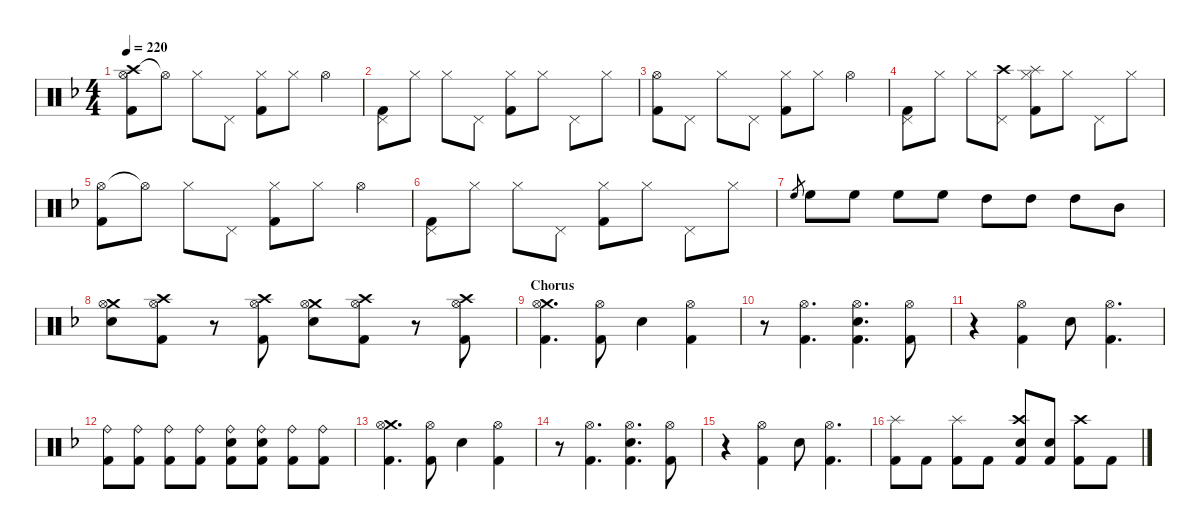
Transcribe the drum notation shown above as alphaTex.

\hideDynamics
\bracketExtendMode nobrackets
\singleTrackTrackNamePolicy hidden
\multiTrackTrackNamePolicy hidden
\firstSystemTrackNameMode fullname
\firstSystemTrackNameOrientation horizontal
\otherSystemsTrackNameOrientation horizontal
\track ("Drumkit" "Drums") {instrument percussion}
\staff {score}
\articulation defaults
\ts (4 4)
\tempo 220
\clef neutral
\ks dminor
("Crash high (hit)"{acc forcenatural} "Hi-Hat (open)"{acc forcenatural} "Kick (hit) 2"{acc forcenatural}).8{dy mp beam Down} "Hi-Hat (open)"{t acc forcenatural}.8{dy f beam Down} "Hi-Hat (closed)"{acc forcenatural}.8{dy mp beam Down} "Pedal Hi-Hat (hit)"{acc forcenatural}.8{beam Down} ("Hi-Hat (closed)"{acc forcenatural} "Kick (hit) 2"{acc forcenatural}).8{beam Down} "Hi-Hat (closed)"{acc forcenatural}.8{beam Down} "Hi-Hat (open)"{acc forcenatural}.4{dy mf beam Down} |
("Pedal Hi-Hat (hit)"{acc forcenatural} "Kick (hit) 2"{acc forcenatural}).8{beam Down} "Hi-Hat (closed)"{acc forcenatural}.8{dy mp beam Down} "Hi-Hat (closed)"{acc forcenatural}.8{beam Down} "Pedal Hi-Hat (hit)"{acc forcenatural}.8{dy mf beam Down} ("Hi-Hat (closed)"{acc forcenatural} "Kick (hit) 2"{acc forcenatural}).8{dy mp beam Down} "Hi-Hat (closed)"{acc forcenatural}.8{beam Down} "Pedal Hi-Hat (hit)"{acc forcenatural}.8{dy mf beam Down} "Hi-Hat (closed)"{acc forcenatural}.8{dy mp beam Down} |
("Hi-Hat (open)"{acc forcenatural} "Kick (hit) 2"{acc forcenatural}).8{dy mf beam Down} "Pedal Hi-Hat (hit)"{acc forcenatural}.8{beam Down} "Hi-Hat (closed)"{acc forcenatural}.8{dy mp beam Down} "Pedal Hi-Hat (hit)"{acc forcenatural}.8{beam Down} ("Hi-Hat (closed)"{acc forcenatural} "Kick (hit) 2"{acc forcenatural}).8{beam Down} "Hi-Hat (closed)"{acc forcenatural}.8{beam Down} "Hi-Hat (open)"{acc forcenatural}.4{dy mf beam Down} |
("Pedal Hi-Hat (hit)"{acc forcenatural} "Kick (hit) 2"{acc forcenatural}).8{beam Down} "Hi-Hat (closed)"{acc forcenatural}.8{dy mp beam Down} "Hi-Hat (closed)"{acc forcenatural}.8{beam Down} ("Crash high (hit)"{acc forcenatural} "Pedal Hi-Hat (hit)"{acc forcenatural}).8{beam Down} ("Splash (hit)"{acc forcenatural} "Hi-Hat (closed)"{acc forcenatural} "Kick (hit) 2"{acc forcenatural}).8{beam Down} "Hi-Hat (closed)"{acc forcenatural}.8{beam Down} "Pedal Hi-Hat (hit)"{acc forcenatural}.8{dy mf beam Down} "Hi-Hat (closed)"{acc forcenatural}.8{dy mp beam Down} |
("Hi-Hat (open)"{acc forcenatural} "Kick (hit) 2"{acc forcenatural}).8{dy mf beam Down} "Hi-Hat (open)"{t acc forcenatural}.8{dy f beam Down} "Hi-Hat (closed)"{acc forcenatural}.8{dy mp beam Down} "Pedal Hi-Hat (hit)"{acc forcenatural}.8{beam Down} ("Hi-Hat (closed)"{acc forcenatural} "Kick (hit) 2"{acc forcenatural}).8{beam Down} "Hi-Hat (closed)"{acc forcenatural}.8{beam Down} "Hi-Hat (open)"{acc forcenatural}.4{dy mf beam Down} |
("Pedal Hi-Hat (hit)"{acc forcenatural} "Kick (hit) 2"{acc forcenatural}).8{beam Down} "Hi-Hat (closed)"{acc forcenatural}.8{dy mp beam Down} "Hi-Hat (closed)"{acc forcenatural}.8{beam Down} "Pedal Hi-Hat (hit)"{acc forcenatural}.8{dy mf beam Down} ("Hi-Hat (closed)"{acc forcenatural} "Kick (hit) 2"{acc forcenatural}).8{dy mp beam Down} "Hi-Hat (closed)"{acc forcenatural}.8{beam Down} "Pedal Hi-Hat (hit)"{acc forcenatural}.8{dy mf beam Down} "Hi-Hat (closed)"{acc forcenatural}.8{dy mp beam Down} |
"High Floor Tom (hit)"{acc forcenatural}.8{gr beam Up} "High Floor Tom (hit)"{acc forcenatural}.8{dy f beam Down} "High Floor Tom (hit)"{acc forcenatural}.8{beam Down} "High Floor Tom (hit)"{acc forcenatural}.8{beam Down} "High Floor Tom (hit)"{acc forcenatural}.8{beam Down} "High Tom (hit)"{acc forcenatural}.8{beam Down} "High Tom (hit)"{acc forcenatural}.8{beam Down} "High Tom (hit)"{acc forcenatural}.8{beam Down} "Mid Tom (hit)"{acc forcenatural}.8{beam Down} |
("Crash medium (hit)"{acc forcenatural} "Hi-Hat (open)"{acc forcenatural} "Snare (hit) 2"{acc forcenatural}).8{beam Down} ("Crash high (hit)"{acc forcenatural} "Hi-Hat (open)"{acc forcenatural} "Kick (hit) 2"{acc forcenatural}).8{beam Down} r.8{beam Down} ("Crash high (hit)"{acc forcenatural} "Hi-Hat (open)"{acc forcenatural} "Kick (hit) 2"{acc forcenatural}).8{beam Down} ("Crash medium (hit)"{acc forcenatural} "Hi-Hat (open)"{acc forcenatural} "Snare (hit) 2"{acc forcenatural}).8{beam Down} ("Crash high (hit)"{acc forcenatural} "Hi-Hat (open)"{acc forcenatural} "Kick (hit) 2"{acc forcenatural}).8{beam Down} r.8{beam Down} ("Crash high (hit)"{acc forcenatural} "Hi-Hat (open)"{acc forcenatural} "Kick (hit) 2"{acc forcenatural}).8{beam Down} |
\section ("" "Chorus")
("Crash medium (hit)"{acc forcenatural} "Hi-Hat (open)"{acc forcenatural} "Kick (hit) 2"{acc forcenatural}).4{d beam Down} ("Hi-Hat (open)"{acc forcenatural} "Kick (hit) 2"{acc forcenatural}).8{beam Down} "Snare (hit) 2"{acc forcenatural}.4{beam Down} ("Hi-Hat (open)"{acc forcenatural} "Kick (hit) 2"{acc forcenatural}).4{beam Down} |
r.8{beam Down} ("Hi-Hat (open)"{acc forcenatural} "Kick (hit) 2"{acc forcenatural}).4{d beam Down} ("Hi-Hat (open)"{acc forcenatural} "Snare (hit) 2"{acc forcenatural} "Kick (hit) 2"{acc forcenatural}).4{d beam Down} ("Hi-Hat (open)"{acc forcenatural} "Kick (hit) 2"{acc forcenatural}).8{beam Down} |
r.4{beam Down} ("Hi-Hat (open)"{acc forcenatural} "Kick (hit) 2"{acc forcenatural}).4{beam Down} "Snare (hit) 2"{acc forcenatural}.8{beam Down} ("Hi-Hat (open)"{acc forcenatural} "Kick (hit) 2"{acc forcenatural}).4{d beam Down} |
("Ride (bell)"{acc forcenatural} "Kick (hit) 2"{acc forcenatural}).8{beam Down} ("Ride (bell)"{acc forcenatural} "Kick (hit) 2"{acc forcenatural}).8{beam Down} ("Ride (bell)"{acc forcenatural} "Kick (hit) 2"{acc forcenatural}).8{dy mp beam Down} ("Ride (bell)"{acc forcenatural} "Kick (hit) 2"{acc forcenatural}).8{beam Down} ("Ride (bell)"{acc forcenatural} "Snare (hit) 2"{acc forcenatural} "Kick (hit) 2"{acc forcenatural}).8{dy f beam Down} ("Ride (bell)"{acc forcenatural} "Snare (hit) 2"{acc forcenatural} "Kick (hit) 2"{acc forcenatural}).8{beam Down} ("Ride (bell)"{acc forcenatural} "Kick (hit) 2"{acc forcenatural}).8{dy mp beam Down} ("Ride (bell)"{acc forcenatural} "Kick (hit) 2"{acc forcenatural}).8{beam Down} |
("Crash medium (hit)"{acc forcenatural} "Hi-Hat (open)"{acc forcenatural} "Kick (hit) 2"{acc forcenatural}).4{d dy f beam Down} ("Hi-Hat (open)"{acc forcenatural} "Kick (hit) 2"{acc forcenatural}).8{beam Down} "Snare (hit) 2"{acc forcenatural}.4{beam Down} ("Hi-Hat (open)"{acc forcenatural} "Kick (hit) 2"{acc forcenatural}).4{beam Down} |
r.8{beam Down} ("Hi-Hat (open)"{acc forcenatural} "Kick (hit) 2"{acc forcenatural}).4{d beam Down} ("Hi-Hat (open)"{acc forcenatural} "Snare (hit) 2"{acc forcenatural} "Kick (hit) 2"{acc forcenatural}).4{d beam Down} ("Hi-Hat (open)"{acc forcenatural} "Kick (hit) 2"{acc forcenatural}).8{beam Down} |
r.4{beam Down} ("Hi-Hat (open)"{acc forcenatural} "Kick (hit) 2"{acc forcenatural}).4{beam Down} "Snare (hit) 2"{acc forcenatural}.8{beam Down} ("Hi-Hat (open)"{acc forcenatural} "Kick (hit) 2"{acc forcenatural}).4{d beam Down} |
("Splash (hit)"{acc forcenatural} "Kick (hit) 2"{acc forcenatural}).8{beam Down} "Kick (hit) 2"{acc forcenatural}.8{beam Down} ("Splash (hit)"{acc forcenatural} "Kick (hit) 2"{acc forcenatural}).8{beam Down} "Kick (hit) 2"{acc forcenatural}.8{beam Down} ("Crash high (hit)"{acc forcenatural} "Snare (hit) 2"{acc forcenatural} "Kick (hit) 2"{acc forcenatural}).8{beam Up} ("Snare (hit) 2"{acc forcenatural} "Kick (hit) 2"{acc forcenatural}).8{beam Up} ("Crash high (hit)"{acc forcenatural} "Kick (hit) 2"{acc forcenatural}).8{beam Down} "Kick (hit) 2"{acc forcenatural}.8{beam Down}
